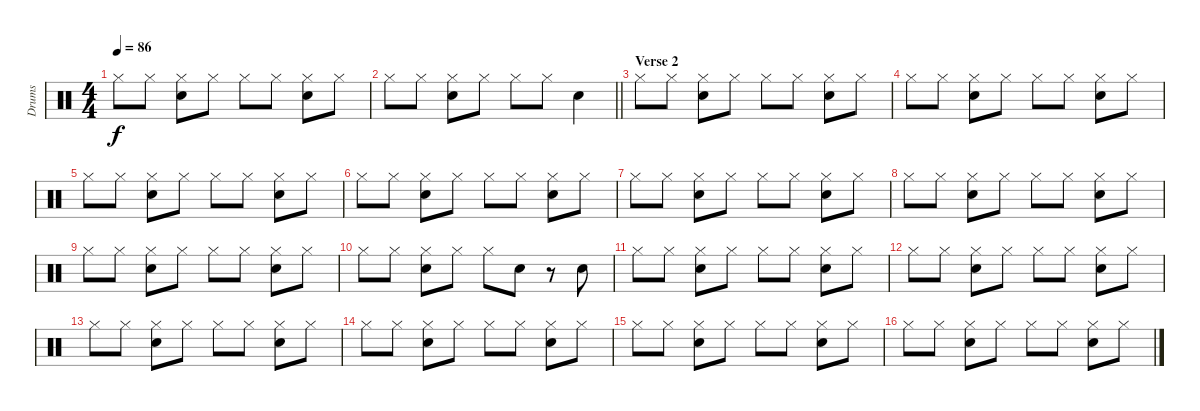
\track ("Drums" "Drums") {instrument percussion}
\staff {score}
\articulation defaults
\ts (4 4)
\tempo 86
\clef neutral
\ks c "Hi-Hat (closed)".8{dy f} "Hi-Hat (closed)".8
("Hi-Hat (closed)" "Snare (hit) 2").8 "Hi-Hat (closed)".8 "Hi-Hat (closed)".8 "Hi-Hat (closed)".8 ("Hi-Hat (closed)" "Snare (hit) 2").8 "Hi-Hat (closed)".8 |
\barLineRight lightlight "Hi-Hat (closed)".8 "Hi-Hat (closed)".8
("Hi-Hat (closed)" "Snare (hit) 2").8 "Hi-Hat (closed)".8 "Hi-Hat (closed)".8 "Hi-Hat (closed)".8 "Snare (hit) 2".4 |
\section ("" "Verse 2")
"Hi-Hat (closed)".8 "Hi-Hat (closed)".8 ("Hi-Hat (closed)" "Snare (hit) 2").8 "Hi-Hat (closed)".8 "Hi-Hat (closed)".8 "Hi-Hat (closed)".8 ("Hi-Hat (closed)" "Snare (hit) 2").8 "Hi-Hat (closed)".8 |
"Hi-Hat (closed)".8 "Hi-Hat (closed)".8 ("Hi-Hat (closed)" "Snare (hit) 2").8 "Hi-Hat (closed)".8 "Hi-Hat (closed)".8 "Hi-Hat (closed)".8 ("Hi-Hat (closed)" "Snare (hit) 2").8 "Hi-Hat (closed)".8 |
"Hi-Hat (closed)".8 "Hi-Hat (closed)".8 ("Hi-Hat (closed)" "Snare (hit) 2").8 "Hi-Hat (closed)".8 "Hi-Hat (closed)".8 "Hi-Hat (closed)".8 ("Hi-Hat (closed)" "Snare (hit) 2").8 "Hi-Hat (closed)".8 |
"Hi-Hat (closed)".8 "Hi-Hat (closed)".8 ("Hi-Hat (closed)" "Snare (hit) 2").8 "Hi-Hat (closed)".8 "Hi-Hat (closed)".8 "Hi-Hat (closed)".8 ("Hi-Hat (closed)" "Snare (hit) 2").8 "Hi-Hat (closed)".8 |
"Hi-Hat (closed)".8 "Hi-Hat (closed)".8 ("Hi-Hat (closed)" "Snare (hit) 2").8 "Hi-Hat (closed)".8 "Hi-Hat (closed)".8 "Hi-Hat (closed)".8 ("Hi-Hat (closed)" "Snare (hit) 2").8 "Hi-Hat (closed)".8 |
"Hi-Hat (closed)".8 "Hi-Hat (closed)".8 ("Hi-Hat (closed)" "Snare (hit) 2").8 "Hi-Hat (closed)".8 "Hi-Hat (closed)".8 "Hi-Hat (closed)".8 ("Hi-Hat (closed)" "Snare (hit) 2").8 "Hi-Hat (closed)".8 |
"Hi-Hat (closed)".8 "Hi-Hat (closed)".8 ("Hi-Hat (closed)" "Snare (hit) 2").8 "Hi-Hat (closed)".8 "Hi-Hat (closed)".8 "Hi-Hat (closed)".8 ("Hi-Hat (closed)" "Snare (hit) 2").8 "Hi-Hat (closed)".8 |
"Hi-Hat (closed)".8 "Hi-Hat (closed)".8 ("Hi-Hat (closed)" "Snare (hit) 2").8 "Hi-Hat (closed)".8 "Hi-Hat (closed)".8 "Snare (hit) 2".8 r.8 "Snare (hit) 2".8 |
"Hi-Hat (closed)".8 "Hi-Hat (closed)".8 ("Hi-Hat (closed)" "Snare (hit) 2").8 "Hi-Hat (closed)".8 "Hi-Hat (closed)".8 "Hi-Hat (closed)".8 ("Hi-Hat (closed)" "Snare (hit) 2").8 "Hi-Hat (closed)".8 |
"Hi-Hat (closed)".8 "Hi-Hat (closed)".8 ("Hi-Hat (closed)" "Snare (hit) 2").8 "Hi-Hat (closed)".8 "Hi-Hat (closed)".8 "Hi-Hat (closed)".8 ("Hi-Hat (closed)" "Snare (hit) 2").8 "Hi-Hat (closed)".8 |
"Hi-Hat (closed)".8 "Hi-Hat (closed)".8 ("Hi-Hat (closed)" "Snare (hit) 2").8 "Hi-Hat (closed)".8 "Hi-Hat (closed)".8 "Hi-Hat (closed)".8 ("Hi-Hat (closed)" "Snare (hit) 2").8 "Hi-Hat (closed)".8 |
"Hi-Hat (closed)".8 "Hi-Hat (closed)".8 ("Hi-Hat (closed)" "Snare (hit) 2").8 "Hi-Hat (closed)".8 "Hi-Hat (closed)".8 "Hi-Hat (closed)".8 ("Hi-Hat (closed)" "Snare (hit) 2").8 "Hi-Hat (closed)".8 |
"Hi-Hat (closed)".8 "Hi-Hat (closed)".8 ("Hi-Hat (closed)" "Snare (hit) 2").8 "Hi-Hat (closed)".8 "Hi-Hat (closed)".8 "Hi-Hat (closed)".8 ("Hi-Hat (closed)" "Snare (hit) 2").8 "Hi-Hat (closed)".8 |
"Hi-Hat (closed)".8 "Hi-Hat (closed)".8 ("Hi-Hat (closed)" "Snare (hit) 2").8 "Hi-Hat (closed)".8 "Hi-Hat (closed)".8 "Hi-Hat (closed)".8 ("Hi-Hat (closed)" "Snare (hit) 2").8 "Hi-Hat (closed)".8
